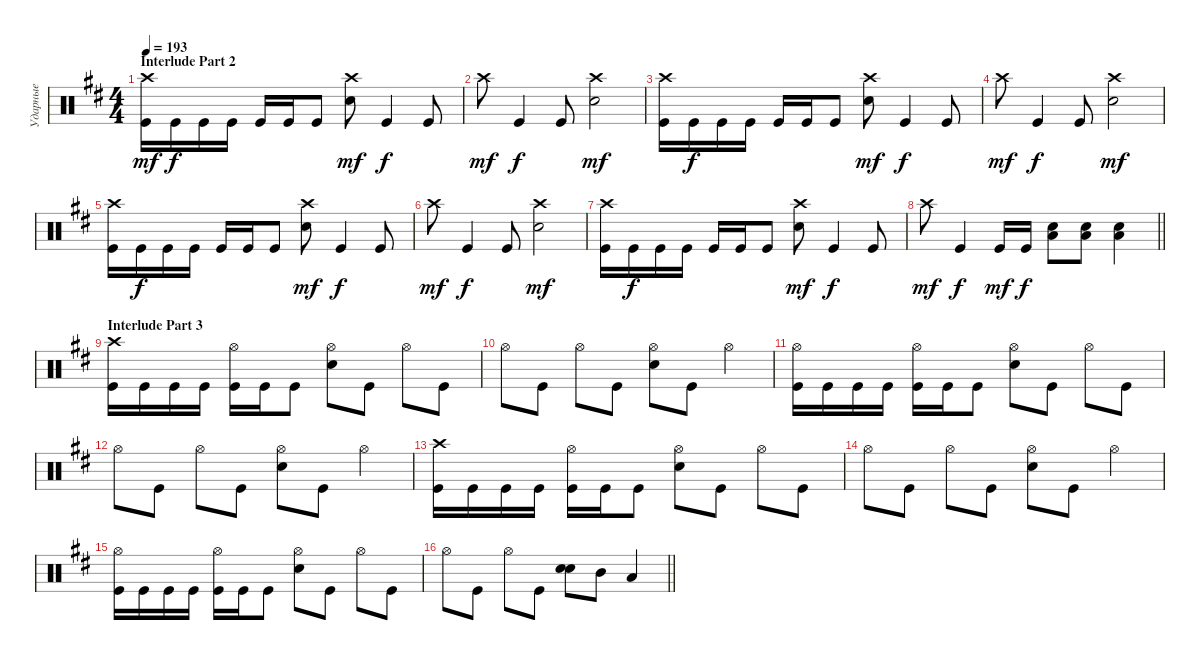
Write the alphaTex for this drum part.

\track ("Ударные" "Ударные") {instrument percussion}
\staff {score}
\articulation defaults
\ts (4 4)
\section ("" "Interlude Part 2")
\tempo 193
\clef neutral
\ks bminor
("Kick (hit)" "Crash high (hit)").16{dy mf} "Kick (hit)".16{dy f} "Kick (hit)".16 "Kick (hit)".16 "Kick (hit)".16 "Kick (hit)".16 "Kick (hit)".8 ("Snare (hit) 2" "Crash high (hit)").8{dy mf} "Kick (hit)".4{dy f} "Kick (hit)".8 |
"Crash high (hit)".8{dy mf} "Kick (hit)".4{dy f} "Kick (hit)".8 ("Snare (hit) 2" "Crash high (hit)").2{dy mf} |
("Kick (hit)" "Crash high (hit)").16 "Kick (hit)".16{dy f} "Kick (hit)".16 "Kick (hit)".16 "Kick (hit)".16 "Kick (hit)".16 "Kick (hit)".8 ("Snare (hit) 2" "Crash high (hit)").8{dy mf} "Kick (hit)".4{dy f} "Kick (hit)".8 |
"Crash high (hit)".8{dy mf} "Kick (hit)".4{dy f} "Kick (hit)".8 ("Snare (hit) 2" "Crash high (hit)").2{dy mf} |
("Kick (hit)" "Crash high (hit)").16 "Kick (hit)".16{dy f} "Kick (hit)".16 "Kick (hit)".16 "Kick (hit)".16 "Kick (hit)".16 "Kick (hit)".8 ("Snare (hit) 2" "Crash high (hit)").8{dy mf} "Kick (hit)".4{dy f} "Kick (hit)".8 |
"Crash high (hit)".8{dy mf} "Kick (hit)".4{dy f} "Kick (hit)".8 ("Snare (hit) 2" "Crash high (hit)").2{dy mf} |
("Kick (hit)" "Crash high (hit)").16 "Kick (hit)".16{dy f} "Kick (hit)".16 "Kick (hit)".16 "Kick (hit)".16 "Kick (hit)".16 "Kick (hit)".8 ("Snare (hit) 2" "Crash high (hit)").8{dy mf} "Kick (hit)".4{dy f} "Kick (hit)".8 |
\barLineRight lightlight "Crash high (hit)".8{dy mf} "Kick (hit)".4{dy f} "Kick (hit)".16{dy mf} "Kick (hit)".16{dy f}
("Snare (hit) 2" "Low Tom (hit)").8 ("Snare (hit) 2" "Low Tom (hit)").8 ("Snare (hit) 2" "Low Tom (hit)").4 |
\section ("" "Interlude Part 3")
("Kick (hit)" "Crash high (hit)").16 "Kick (hit)".16 "Kick (hit)".16 "Kick (hit)".16 ("Kick (hit)" "Hi-Hat (open)").16 "Kick (hit)".16 "Kick (hit)".8 ("Snare (hit) 2" "Hi-Hat (open)").8 "Kick (hit)".8 "Hi-Hat (open)".8 "Kick (hit)".8 |
"Hi-Hat (open)".8 "Kick (hit)".8 "Hi-Hat (open)".8 "Kick (hit)".8 ("Snare (hit) 2" "Hi-Hat (open)").8 "Kick (hit)".8 "Hi-Hat (open)".4 |
("Kick (hit)" "Hi-Hat (open)").16 "Kick (hit)".16 "Kick (hit)".16 "Kick (hit)".16 ("Kick (hit)" "Hi-Hat (open)").16 "Kick (hit)".16 "Kick (hit)".8 ("Snare (hit) 2" "Hi-Hat (open)").8 "Kick (hit)".8 "Hi-Hat (open)".8 "Kick (hit)".8 |
"Hi-Hat (open)".8 "Kick (hit)".8 "Hi-Hat (open)".8 "Kick (hit)".8 ("Snare (hit) 2" "Hi-Hat (open)").8 "Kick (hit)".8 "Hi-Hat (open)".4 |
("Kick (hit)" "Crash high (hit)").16 "Kick (hit)".16 "Kick (hit)".16 "Kick (hit)".16 ("Kick (hit)" "Hi-Hat (open)").16 "Kick (hit)".16 "Kick (hit)".8 ("Snare (hit) 2" "Hi-Hat (open)").8 "Kick (hit)".8 "Hi-Hat (open)".8 "Kick (hit)".8 |
"Hi-Hat (open)".8 "Kick (hit)".8 "Hi-Hat (open)".8 "Kick (hit)".8 ("Snare (hit) 2" "Hi-Hat (open)").8 "Kick (hit)".8 "Hi-Hat (open)".4 |
("Kick (hit)" "Hi-Hat (open)").16 "Kick (hit)".16 "Kick (hit)".16 "Kick (hit)".16 ("Kick (hit)" "Hi-Hat (open)").16 "Kick (hit)".16 "Kick (hit)".8 ("Snare (hit) 2" "Hi-Hat (open)").8 "Kick (hit)".8 "Hi-Hat (open)".8 "Kick (hit)".8 |
\barLineRight lightlight "Hi-Hat (open)".8 "Kick (hit)".8 "Hi-Hat (open)".8 "Kick (hit)".8
("Snare (hit) 2" "Snare (hit) 2").8{bd 240} "Mid Tom (hit)".8 "Low Tom (hit)".4
